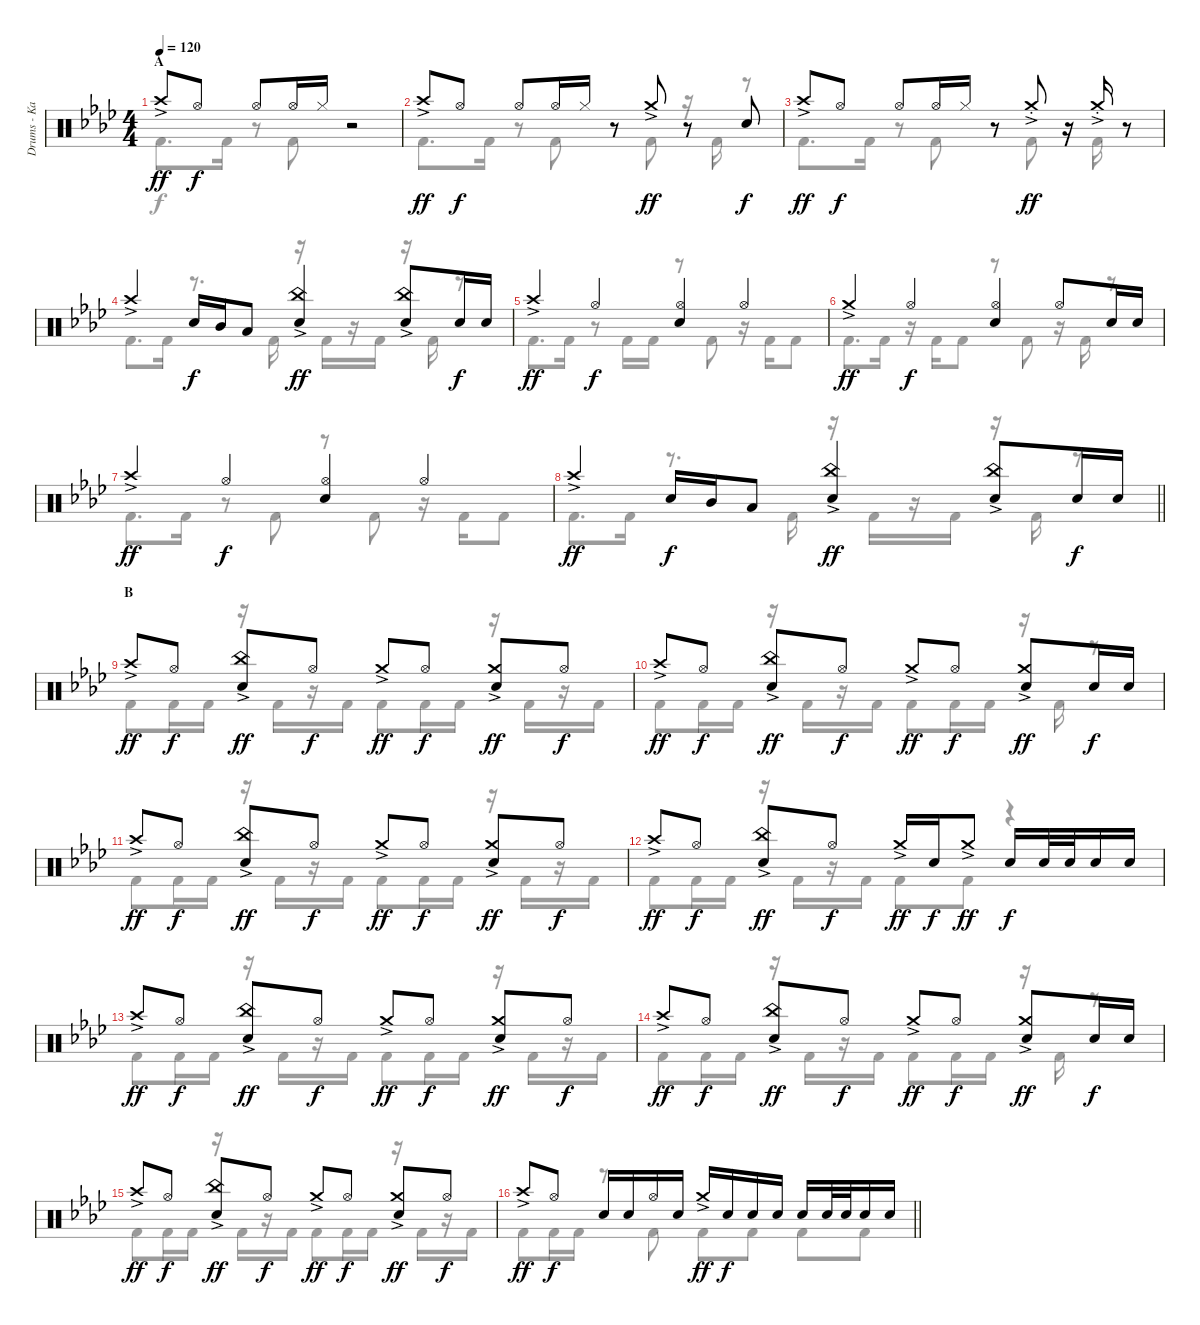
\track ("Drums - Kai" "Drums - Ka") {instrument percussion}
\staff {score}
\articulation defaults
\voice
\ts (4 4)
\section ("" "A")
\tempo 120
\clef neutral
\ks ab "Crash high (hit)"{ac}.8{dy ff} "Hi-Hat (open)".8{dy f} "Hi-Hat (open)".8 "Hi-Hat (open)".16 "Hi-Hat (closed)".16
r.2 |
"Crash high (hit)"{ac}.8{dy ff} "Hi-Hat (open)".8{dy f} "Hi-Hat (open)".8 "Hi-Hat (open)".16 "Hi-Hat (closed)".16 r.8 "Crash medium (hit)"{ac}.8{dy ff} r.8 "Snare (hit) 2".8{dy f} |
"Crash high (hit)"{ac}.8{dy ff} "Hi-Hat (open)".8{dy f} "Hi-Hat (open)".8 "Hi-Hat (open)".16 "Hi-Hat (closed)".16 r.8 "Crash medium (hit)"{ac st}.8{dy ff} r.16 "Crash medium (hit)"{ac st}.16 r.8 |
"Crash high (hit)"{ac}.4 "Snare (hit) 2".16{dy f} "Mid Tom (hit)".16 "Low Tom (hit)".8 ("China (hit)"{ac} "Snare (hit) 2").4{dy ff} ("China (hit)"{ac} "Snare (hit) 2").8 "Snare (hit) 2".16{dy f} "Snare (hit) 2".16 |
"Crash high (hit)"{ac}.4{dy ff} "Hi-Hat (open)".4{dy f} ("Hi-Hat (open)" "Snare (hit) 2").4 "Hi-Hat (open)".4 |
"Crash medium (hit)"{ac}.4{dy ff} "Hi-Hat (open)".4{dy f} ("Hi-Hat (open)" "Snare (hit) 2").4 "Hi-Hat (open)".8 "Snare (hit) 2".16 "Snare (hit) 2".16 |
"Crash high (hit)"{ac}.4{dy ff} "Hi-Hat (open)".4{dy f} ("Hi-Hat (open)" "Snare (hit) 2").4 "Hi-Hat (open)".4 |
\barLineRight lightlight "Crash high (hit)"{ac}.4{dy ff} "Snare (hit) 2".16{dy f} "Mid Tom (hit)".16 "Low Tom (hit)".8
("China (hit)"{ac} "Snare (hit) 2").4{dy ff} ("China (hit)"{ac} "Snare (hit) 2").8 "Snare (hit) 2".16{dy f} "Snare (hit) 2".16 |
\section ("" "B")
"Crash high (hit)"{ac}.8{dy ff} "Hi-Hat (open)".8{dy f} ("China (hit)"{ac} "Snare (hit) 2").8{dy ff} "Hi-Hat (open)".8{dy f} "Crash medium (hit)"{ac}.8{dy ff} "Hi-Hat (open)".8{dy f} ("Crash medium (hit)"{ac} "Snare (hit) 2").8{dy ff} "Hi-Hat (open)".8{dy f} |
"Crash high (hit)"{ac}.8{dy ff} "Hi-Hat (open)".8{dy f} ("China (hit)"{ac} "Snare (hit) 2").8{dy ff} "Hi-Hat (open)".8{dy f} "Crash medium (hit)"{ac}.8{dy ff} "Hi-Hat (open)".8{dy f} ("Crash medium (hit)"{ac} "Snare (hit) 2").8{dy ff} "Snare (hit) 2".16{dy f} "Snare (hit) 2".16 |
"Crash high (hit)"{ac}.8{dy ff} "Hi-Hat (open)".8{dy f} ("China (hit)"{ac} "Snare (hit) 2").8{dy ff} "Hi-Hat (open)".8{dy f} "Crash medium (hit)"{ac}.8{dy ff} "Hi-Hat (open)".8{dy f} ("Crash medium (hit)"{ac} "Snare (hit) 2").8{dy ff} "Hi-Hat (open)".8{dy f} |
"Crash high (hit)"{ac}.8{dy ff} "Hi-Hat (open)".8{dy f} ("China (hit)"{ac} "Snare (hit) 2").8{dy ff} "Hi-Hat (open)".8{dy f} "Crash medium (hit)"{ac}.16{dy ff} "Snare (hit) 2".16{dy f} "Crash medium (hit)"{ac}.8{dy ff} "Snare (hit) 2".16{dy f} "Snare (hit) 2".32 "Snare (hit) 2".32 "Snare (hit) 2".16 "Snare (hit) 2".16 |
"Crash high (hit)"{ac}.8{dy ff} "Hi-Hat (open)".8{dy f} ("China (hit)"{ac} "Snare (hit) 2").8{dy ff} "Hi-Hat (open)".8{dy f} "Crash medium (hit)"{ac}.8{dy ff} "Hi-Hat (open)".8{dy f} ("Crash medium (hit)"{ac} "Snare (hit) 2").8{dy ff} "Hi-Hat (open)".8{dy f} |
"Crash high (hit)"{ac}.8{dy ff} "Hi-Hat (open)".8{dy f} ("China (hit)"{ac} "Snare (hit) 2").8{dy ff} "Hi-Hat (open)".8{dy f} "Crash medium (hit)"{ac}.8{dy ff} "Hi-Hat (open)".8{dy f} ("Crash medium (hit)"{ac} "Snare (hit) 2").8{dy ff} "Snare (hit) 2".16{dy f} "Snare (hit) 2".16 |
"Crash high (hit)"{ac}.8{dy ff} "Hi-Hat (open)".8{dy f} ("China (hit)"{ac} "Snare (hit) 2").8{dy ff} "Hi-Hat (open)".8{dy f} "Crash medium (hit)"{ac}.8{dy ff} "Hi-Hat (open)".8{dy f} ("Crash medium (hit)"{ac} "Snare (hit) 2").8{dy ff} "Hi-Hat (open)".8{dy f} |
\barLineRight lightlight "Crash high (hit)"{ac}.8{dy ff} "Hi-Hat (open)".8{dy f} "Snare (hit) 2".16 "Snare (hit) 2".16 "Hi-Hat (open)".16 "Snare (hit) 2".16 "Crash medium (hit)"{ac}.16{dy ff} "Snare (hit) 2".16{dy f} "Snare (hit) 2".16 "Snare (hit) 2".16 "Snare (hit) 2".16 "Snare (hit) 2".32 "Snare (hit) 2".32 "Snare (hit) 2".16 "Snare (hit) 2".16
\voice
\clef neutral
\ottava regular
\simile none
\ks ab "Kick (hit) 2".8{d dy f} "Kick (hit) 2".16
r.8 "Kick (hit) 2".8 r.2 |
"Kick (hit) 2".8{d} "Kick (hit) 2".16 r.8 "Kick (hit) 2".8 r.8 "Kick (hit) 2".8 r.16 "Kick (hit) 2".16 r.8 |
"Kick (hit) 2".8{d} "Kick (hit) 2".16 r.8 "Kick (hit) 2".8 r.8 "Kick (hit) 2".8 r.16 "Kick (hit) 2".16 r.8 |
"Kick (hit) 2".8{d} "Kick (hit) 2".16 r.8{d} "Kick (hit) 2".16 r.16 "Kick (hit) 2".16 r.16 "Kick (hit) 2".16 r.16 "Kick (hit) 2".16 r.8 |
"Kick (hit) 2".8{d} "Kick (hit) 2".16 r.8 "Kick (hit) 2".16 "Kick (hit) 2".16 r.8 "Kick (hit) 2".8 r.16 "Kick (hit) 2".16 "Kick (hit) 2".8 |
"Kick (hit) 2".8{d} "Kick (hit) 2".16 r.16 "Kick (hit) 2".16 "Kick (hit) 2".8 r.8 "Kick (hit) 2".8 r.16 "Kick (hit) 2".16 r.8 |
"Kick (hit) 2".8{d} "Kick (hit) 2".16 r.8 "Kick (hit) 2".8 r.8 "Kick (hit) 2".8 r.16 "Kick (hit) 2".16 "Kick (hit) 2".8 |
\barLineRight lightlight "Kick (hit) 2".8{d} "Kick (hit) 2".16
r.8{d} "Kick (hit) 2".16 r.16 "Kick (hit) 2".16 r.16 "Kick (hit) 2".16 r.16 "Kick (hit) 2".16 r.8 |
"Kick (hit) 2".8 "Kick (hit) 2".16 "Kick (hit) 2".16 r.16 "Kick (hit) 2".16 r.16 "Kick (hit) 2".16 "Kick (hit) 2".8 "Kick (hit) 2".16 "Kick (hit) 2".16 r.16 "Kick (hit) 2".16 r.16 "Kick (hit) 2".16 |
"Kick (hit) 2".8 "Kick (hit) 2".16 "Kick (hit) 2".16 r.16 "Kick (hit) 2".16 r.16 "Kick (hit) 2".16 "Kick (hit) 2".8 "Kick (hit) 2".16 "Kick (hit) 2".16 r.16 "Kick (hit) 2".16 r.8 |
"Kick (hit) 2".8 "Kick (hit) 2".16 "Kick (hit) 2".16 r.16 "Kick (hit) 2".16 r.16 "Kick (hit) 2".16 "Kick (hit) 2".8 "Kick (hit) 2".16 "Kick (hit) 2".16 r.16 "Kick (hit) 2".16 r.16 "Kick (hit) 2".16 |
"Kick (hit) 2".8 "Kick (hit) 2".16 "Kick (hit) 2".16 r.16 "Kick (hit) 2".16 r.16 "Kick (hit) 2".16 "Kick (hit) 2".8 "Kick (hit) 2".8 r.4 |
"Kick (hit) 2".8 "Kick (hit) 2".16 "Kick (hit) 2".16 r.16 "Kick (hit) 2".16 r.16 "Kick (hit) 2".16 "Kick (hit) 2".8 "Kick (hit) 2".16 "Kick (hit) 2".16 r.16 "Kick (hit) 2".16 r.16 "Kick (hit) 2".16 |
"Kick (hit) 2".8 "Kick (hit) 2".16 "Kick (hit) 2".16 r.16 "Kick (hit) 2".16 r.16 "Kick (hit) 2".16 "Kick (hit) 2".8 "Kick (hit) 2".16 "Kick (hit) 2".16 r.16 "Kick (hit) 2".16 r.8 |
"Kick (hit) 2".8 "Kick (hit) 2".16 "Kick (hit) 2".16 r.16 "Kick (hit) 2".16 r.16 "Kick (hit) 2".16 "Kick (hit) 2".8 "Kick (hit) 2".16 "Kick (hit) 2".16 r.16 "Kick (hit) 2".16 r.16 "Kick (hit) 2".16 |
\barLineRight lightlight "Kick (hit) 2".8 "Kick (hit) 2".16 "Kick (hit) 2".16
r.8 "Kick (hit) 2".8 "Kick (hit) 2".8 "Kick (hit) 2".8 "Kick (hit) 2".8 "Kick (hit) 2".8
